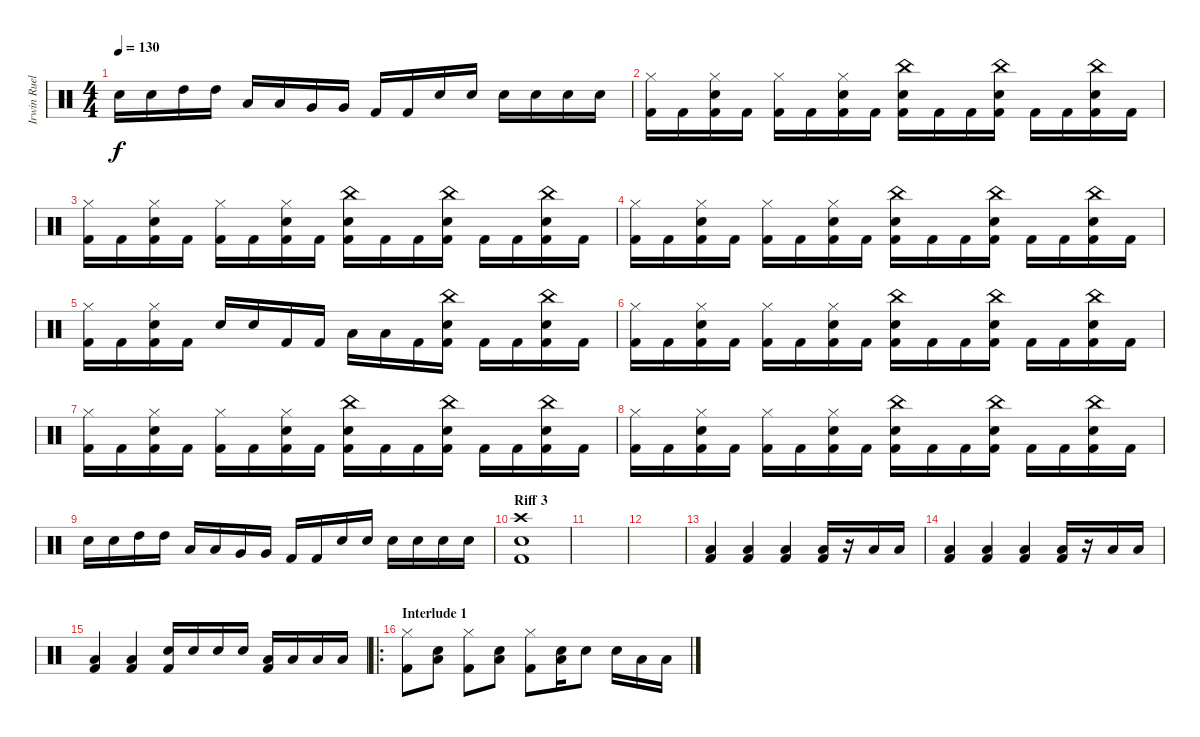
\track ("Irwin Ruelas (Drums)" "Irwin Ruel") {instrument percussion}
\staff {score}
\articulation defaults
\ts (4 4)
\tempo 130
\clef neutral
\ks c "Snare (hit) 2".16{dy f} "Snare (hit) 2".16 "High Tom (hit)".16 "High Tom (hit)".16 "Low Tom (hit)".16 "Low Tom (hit)".16 "Very Low Tom (hit)".16 "Very Low Tom (hit)".16 "Kick (hit) 2".16 "Kick (hit) 2".16 "Snare (hit) 2".16 "Snare (hit) 2".16 "Snare (hit) 2".16 "Snare (hit) 2".16 "Snare (hit) 2".16 "Snare (hit) 2".16
|
("Hi-Hat (closed)" "Kick (hit) 2").16 "Kick (hit) 2".16 ("Hi-Hat (closed)" "Snare (hit) 2" "Kick (hit) 2").16 "Kick (hit) 2".16 ("Hi-Hat (closed)" "Kick (hit) 2").16 "Kick (hit) 2".16 ("Hi-Hat (closed)" "Snare (hit) 2" "Kick (hit) 2").16 "Kick (hit) 2".16 ("China (hit)" "Snare (hit) 2" "Kick (hit) 2").16 "Kick (hit) 2".16 "Kick (hit) 2".16 ("China (hit)" "Snare (hit) 2" "Kick (hit) 2").16 "Kick (hit) 2".16 "Kick (hit) 2".16 ("China (hit)" "Snare (hit) 2" "Kick (hit) 2").16 "Kick (hit) 2".16 |
("Hi-Hat (closed)" "Kick (hit) 2").16 "Kick (hit) 2".16 ("Hi-Hat (closed)" "Snare (hit) 2" "Kick (hit) 2").16 "Kick (hit) 2".16 ("Hi-Hat (closed)" "Kick (hit) 2").16 "Kick (hit) 2".16 ("Hi-Hat (closed)" "Snare (hit) 2" "Kick (hit) 2").16 "Kick (hit) 2".16 ("China (hit)" "Snare (hit) 2" "Kick (hit) 2").16 "Kick (hit) 2".16 "Kick (hit) 2".16 ("China (hit)" "Snare (hit) 2" "Kick (hit) 2").16 "Kick (hit) 2".16 "Kick (hit) 2".16 ("China (hit)" "Snare (hit) 2" "Kick (hit) 2").16 "Kick (hit) 2".16 |
("Hi-Hat (closed)" "Kick (hit) 2").16 "Kick (hit) 2".16 ("Hi-Hat (closed)" "Snare (hit) 2" "Kick (hit) 2").16 "Kick (hit) 2".16 ("Hi-Hat (closed)" "Kick (hit) 2").16 "Kick (hit) 2".16 ("Hi-Hat (closed)" "Snare (hit) 2" "Kick (hit) 2").16 "Kick (hit) 2".16 ("China (hit)" "Snare (hit) 2" "Kick (hit) 2").16 "Kick (hit) 2".16 "Kick (hit) 2".16 ("China (hit)" "Snare (hit) 2" "Kick (hit) 2").16 "Kick (hit) 2".16 "Kick (hit) 2".16 ("China (hit)" "Snare (hit) 2" "Kick (hit) 2").16 "Kick (hit) 2".16 |
("Hi-Hat (closed)" "Kick (hit) 2").16 "Kick (hit) 2".16 ("Hi-Hat (closed)" "Snare (hit) 2" "Kick (hit) 2").16 "Kick (hit) 2".16 "Snare (hit) 2".16 "Snare (hit) 2".16 "Kick (hit) 2".16 "Kick (hit) 2".16 "Low Tom (hit)".16 "Low Tom (hit)".16 "Kick (hit) 2".16 ("China (hit)" "Snare (hit) 2" "Kick (hit) 2").16 "Kick (hit) 2".16 "Kick (hit) 2".16 ("China (hit)" "Snare (hit) 2" "Kick (hit) 2").16 "Kick (hit) 2".16 |
("Hi-Hat (closed)" "Kick (hit) 2").16 "Kick (hit) 2".16 ("Hi-Hat (closed)" "Snare (hit) 2" "Kick (hit) 2").16 "Kick (hit) 2".16 ("Hi-Hat (closed)" "Kick (hit) 2").16 "Kick (hit) 2".16 ("Hi-Hat (closed)" "Snare (hit) 2" "Kick (hit) 2").16 "Kick (hit) 2".16 ("China (hit)" "Snare (hit) 2" "Kick (hit) 2").16 "Kick (hit) 2".16 "Kick (hit) 2".16 ("China (hit)" "Snare (hit) 2" "Kick (hit) 2").16 "Kick (hit) 2".16 "Kick (hit) 2".16 ("China (hit)" "Snare (hit) 2" "Kick (hit) 2").16 "Kick (hit) 2".16 |
("Hi-Hat (closed)" "Kick (hit) 2").16 "Kick (hit) 2".16 ("Hi-Hat (closed)" "Snare (hit) 2" "Kick (hit) 2").16 "Kick (hit) 2".16 ("Hi-Hat (closed)" "Kick (hit) 2").16 "Kick (hit) 2".16 ("Hi-Hat (closed)" "Snare (hit) 2" "Kick (hit) 2").16 "Kick (hit) 2".16 ("China (hit)" "Snare (hit) 2" "Kick (hit) 2").16 "Kick (hit) 2".16 "Kick (hit) 2".16 ("China (hit)" "Snare (hit) 2" "Kick (hit) 2").16 "Kick (hit) 2".16 "Kick (hit) 2".16 ("China (hit)" "Snare (hit) 2" "Kick (hit) 2").16 "Kick (hit) 2".16 |
("Hi-Hat (closed)" "Kick (hit) 2").16 "Kick (hit) 2".16 ("Hi-Hat (closed)" "Snare (hit) 2" "Kick (hit) 2").16 "Kick (hit) 2".16 ("Hi-Hat (closed)" "Kick (hit) 2").16 "Kick (hit) 2".16 ("Hi-Hat (closed)" "Snare (hit) 2" "Kick (hit) 2").16 "Kick (hit) 2".16 ("China (hit)" "Snare (hit) 2" "Kick (hit) 2").16 "Kick (hit) 2".16 "Kick (hit) 2".16 ("China (hit)" "Snare (hit) 2" "Kick (hit) 2").16 "Kick (hit) 2".16 "Kick (hit) 2".16 ("China (hit)" "Snare (hit) 2" "Kick (hit) 2").16 "Kick (hit) 2".16 |
"Snare (hit) 2".16 "Snare (hit) 2".16 "High Tom (hit)".16 "High Tom (hit)".16 "Low Tom (hit)".16 "Low Tom (hit)".16 "Very Low Tom (hit)".16 "Very Low Tom (hit)".16 "Kick (hit) 2".16 "Kick (hit) 2".16 "Snare (hit) 2".16 "Snare (hit) 2".16 "Snare (hit) 2".16 "Snare (hit) 2".16 "Snare (hit) 2".16 "Snare (hit) 2".16 |
\section ("" "Riff 3")
("Crash high (hit)" "Snare (hit) 2" "Kick (hit) 2").1 |
|
|
("Low Floor Tom (hit)" "Kick (hit) 2").4 ("Low Floor Tom (hit)" "Kick (hit) 2").4 ("Low Floor Tom (hit)" "Kick (hit) 2").4 ("Low Floor Tom (hit)" "Kick (hit) 2").16 r.16 "Low Tom (hit)".16 "Low Tom (hit)".16 |
("Low Floor Tom (hit)" "Kick (hit) 2").4 ("Low Floor Tom (hit)" "Kick (hit) 2").4 ("Low Floor Tom (hit)" "Kick (hit) 2").4 ("Low Floor Tom (hit)" "Kick (hit) 2").16 r.16 "Low Tom (hit)".16 "Low Tom (hit)".16 |
("Low Floor Tom (hit)" "Kick (hit) 2").4 ("Low Floor Tom (hit)" "Kick (hit) 2").4 ("Snare (hit) 2" "Kick (hit) 2").16 "Snare (hit) 2".16 "Snare (hit) 2".16 "Snare (hit) 2".16 ("Low Tom (hit)" "Kick (hit) 2").16 "Low Tom (hit)".16 "Low Tom (hit)".16 "Low Tom (hit)".16 |
\ro
\section ("" "Interlude 1")
("Hi-Hat (closed)" "Kick (hit) 2").8 ("Low Floor Tom (hit)" "Snare (hit) 2").8 ("Hi-Hat (closed)" "Kick (hit) 2").8 ("Low Floor Tom (hit)" "Snare (hit) 2").8 ("Hi-Hat (closed)" "Kick (hit) 2").8 ("Low Floor Tom (hit)" "Snare (hit) 2").16 "Snare (hit) 2".8 "Snare (hit) 2".16 "Low Tom (hit)".16 "Low Tom (hit)".16
